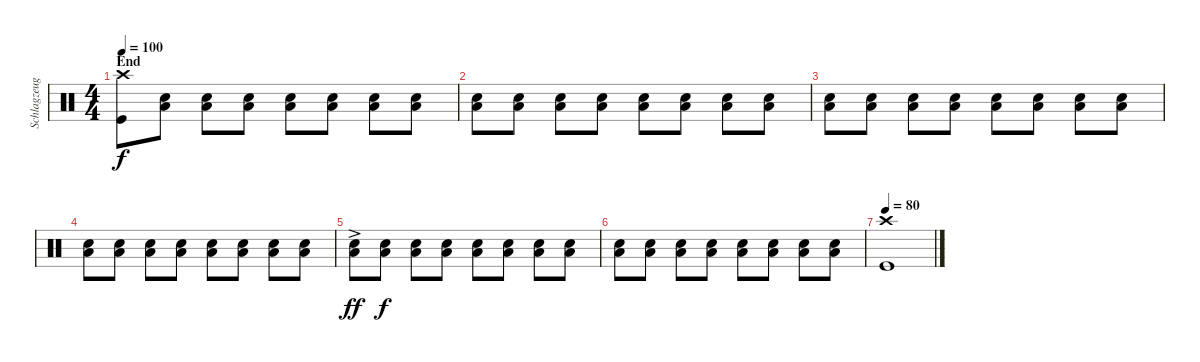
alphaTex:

\track ("Schlagzeug" "Schlagzeug") {instrument percussion}
\staff {score}
\articulation defaults
\ts (4 4)
\section ("" "End")
\tempo 100
\clef neutral
\ks c
("Crash high (hit)" "Kick (hit)").8{dy f} ("Snare (hit) 2" "Low Floor Tom (hit)").8{volume 5} ("Snare (hit) 2" "Low Floor Tom (hit)").8{volume 10} ("Snare (hit) 2" "Low Floor Tom (hit)").8 ("Snare (hit) 2" "Low Floor Tom (hit)").8 ("Snare (hit) 2" "Low Floor Tom (hit)").8 ("Snare (hit) 2" "Low Floor Tom (hit)").8 ("Snare (hit) 2" "Low Floor Tom (hit)").8 |
("Snare (hit) 2" "Low Floor Tom (hit)").8 ("Snare (hit) 2" "Low Floor Tom (hit)").8 ("Snare (hit) 2" "Low Floor Tom (hit)").8 ("Snare (hit) 2" "Low Floor Tom (hit)").8 ("Snare (hit) 2" "Low Floor Tom (hit)").8 ("Snare (hit) 2" "Low Floor Tom (hit)").8 ("Snare (hit) 2" "Low Floor Tom (hit)").8 ("Snare (hit) 2" "Low Floor Tom (hit)").8 |
("Snare (hit) 2" "Low Floor Tom (hit)").8 ("Snare (hit) 2" "Low Floor Tom (hit)").8 ("Snare (hit) 2" "Low Floor Tom (hit)").8 ("Snare (hit) 2" "Low Floor Tom (hit)").8 ("Snare (hit) 2" "Low Floor Tom (hit)").8 ("Snare (hit) 2" "Low Floor Tom (hit)").8 ("Snare (hit) 2" "Low Floor Tom (hit)").8 ("Snare (hit) 2" "Low Floor Tom (hit)").8 |
("Snare (hit) 2" "Low Floor Tom (hit)").8 ("Snare (hit) 2" "Low Floor Tom (hit)").8 ("Snare (hit) 2" "Low Floor Tom (hit)").8 ("Snare (hit) 2" "Low Floor Tom (hit)").8 ("Snare (hit) 2" "Low Floor Tom (hit)").8 ("Snare (hit) 2" "Low Floor Tom (hit)").8 ("Snare (hit) 2" "Low Floor Tom (hit)").8 ("Snare (hit) 2" "Low Floor Tom (hit)").8 |
("Snare (hit) 2"{ac} "Low Floor Tom (hit)"{ac}).8{dy ff} ("Snare (hit) 2" "Low Floor Tom (hit)").8{dy f volume 5} ("Snare (hit) 2" "Low Floor Tom (hit)").8{volume 12} ("Snare (hit) 2" "Low Floor Tom (hit)").8 ("Snare (hit) 2" "Low Floor Tom (hit)").8 ("Snare (hit) 2" "Low Floor Tom (hit)").8 ("Snare (hit) 2" "Low Floor Tom (hit)").8 ("Snare (hit) 2" "Low Floor Tom (hit)").8 |
("Snare (hit) 2" "Low Floor Tom (hit)").8 ("Snare (hit) 2" "Low Floor Tom (hit)").8 ("Snare (hit) 2" "Low Floor Tom (hit)").8 ("Snare (hit) 2" "Low Floor Tom (hit)").8 ("Snare (hit) 2" "Low Floor Tom (hit)").8 ("Snare (hit) 2" "Low Floor Tom (hit)").8 ("Snare (hit) 2" "Low Floor Tom (hit)").8 ("Snare (hit) 2" "Low Floor Tom (hit)").8 |
\tempo 80
("Crash high (hit)" "Kick (hit)").1
